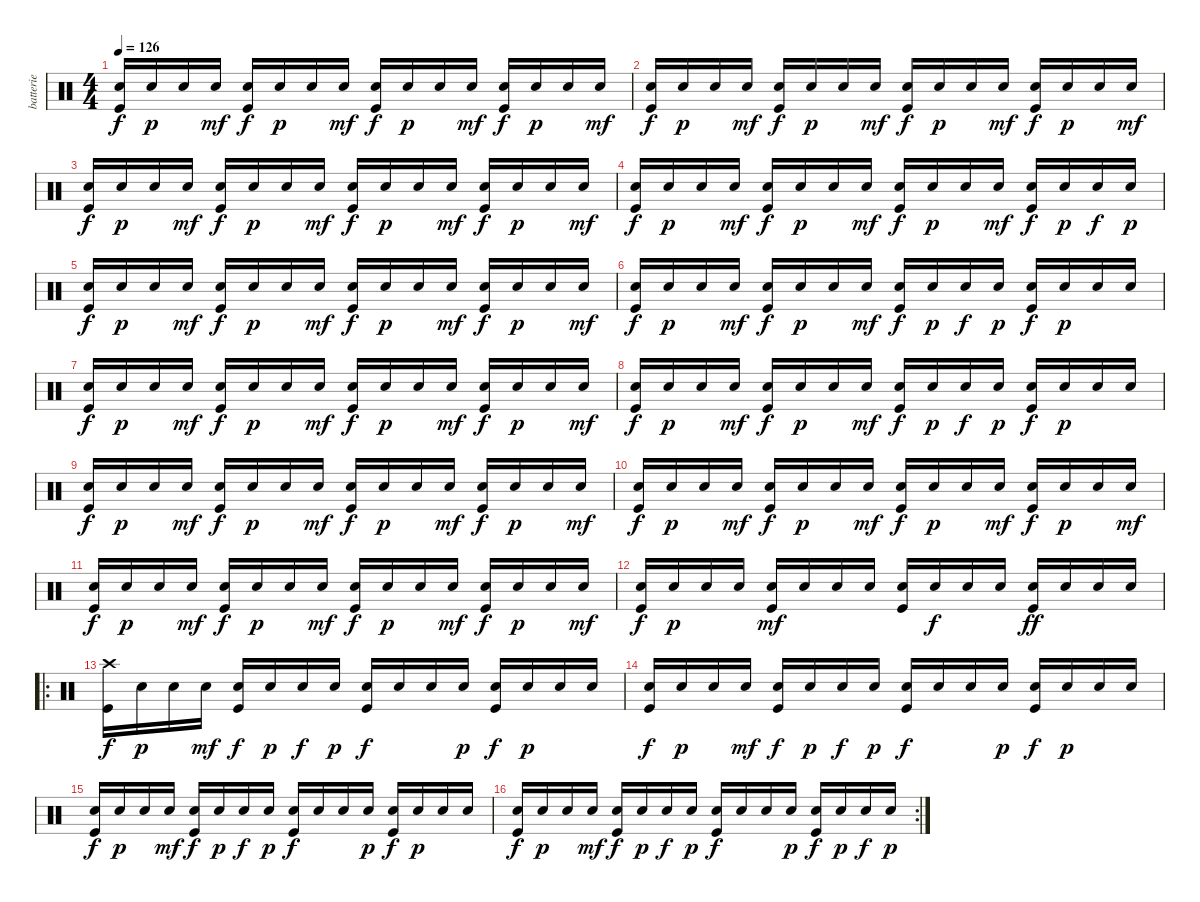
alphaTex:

\track ("batterie" "batterie") {instrument percussion}
\staff {score}
\articulation defaults
\ts (4 4)
\tempo 126
\clef neutral
\ks c
("Electric Snare (hit)" "Kick (hit)").16{dy f} "Electric Snare (hit)".16{dy p} "Electric Snare (hit)".16 "Electric Snare (hit)".16{dy mf} ("Electric Snare (hit)" "Kick (hit)").16{dy f} "Electric Snare (hit)".16{dy p} "Electric Snare (hit)".16 "Electric Snare (hit)".16{dy mf} ("Electric Snare (hit)" "Kick (hit)").16{dy f} "Electric Snare (hit)".16{dy p} "Electric Snare (hit)".16 "Electric Snare (hit)".16{dy mf} ("Electric Snare (hit)" "Kick (hit)").16{dy f} "Electric Snare (hit)".16{dy p} "Electric Snare (hit)".16 "Electric Snare (hit)".16{dy mf} |
("Electric Snare (hit)" "Kick (hit)").16{dy f} "Electric Snare (hit)".16{dy p} "Electric Snare (hit)".16 "Electric Snare (hit)".16{dy mf} ("Electric Snare (hit)" "Kick (hit)").16{dy f} "Electric Snare (hit)".16{dy p} "Electric Snare (hit)".16 "Electric Snare (hit)".16{dy mf} ("Electric Snare (hit)" "Kick (hit)").16{dy f} "Electric Snare (hit)".16{dy p} "Electric Snare (hit)".16 "Electric Snare (hit)".16{dy mf} ("Electric Snare (hit)" "Kick (hit)").16{dy f} "Electric Snare (hit)".16{dy p} "Electric Snare (hit)".16 "Electric Snare (hit)".16{dy mf} |
("Electric Snare (hit)" "Kick (hit)").16{dy f} "Electric Snare (hit)".16{dy p} "Electric Snare (hit)".16 "Electric Snare (hit)".16{dy mf} ("Electric Snare (hit)" "Kick (hit)").16{dy f} "Electric Snare (hit)".16{dy p} "Electric Snare (hit)".16 "Electric Snare (hit)".16{dy mf} ("Electric Snare (hit)" "Kick (hit)").16{dy f} "Electric Snare (hit)".16{dy p} "Electric Snare (hit)".16 "Electric Snare (hit)".16{dy mf} ("Electric Snare (hit)" "Kick (hit)").16{dy f} "Electric Snare (hit)".16{dy p} "Electric Snare (hit)".16 "Electric Snare (hit)".16{dy mf} |
("Electric Snare (hit)" "Kick (hit)").16{dy f} "Electric Snare (hit)".16{dy p} "Electric Snare (hit)".16 "Electric Snare (hit)".16{dy mf} ("Electric Snare (hit)" "Kick (hit)").16{dy f} "Electric Snare (hit)".16{dy p} "Electric Snare (hit)".16 "Electric Snare (hit)".16{dy mf} ("Electric Snare (hit)" "Kick (hit)").16{dy f} "Electric Snare (hit)".16{dy p} "Electric Snare (hit)".16 "Electric Snare (hit)".16{dy mf} ("Electric Snare (hit)" "Kick (hit)").16{dy f} "Electric Snare (hit)".16{dy p} "Electric Snare (hit)".16{dy f} "Electric Snare (hit)".16{dy p} |
("Electric Snare (hit)" "Kick (hit)").16{dy f} "Electric Snare (hit)".16{dy p} "Electric Snare (hit)".16 "Electric Snare (hit)".16{dy mf} ("Electric Snare (hit)" "Kick (hit)").16{dy f} "Electric Snare (hit)".16{dy p} "Electric Snare (hit)".16 "Electric Snare (hit)".16{dy mf} ("Electric Snare (hit)" "Kick (hit)").16{dy f} "Electric Snare (hit)".16{dy p} "Electric Snare (hit)".16 "Electric Snare (hit)".16{dy mf} ("Electric Snare (hit)" "Kick (hit)").16{dy f} "Electric Snare (hit)".16{dy p} "Electric Snare (hit)".16 "Electric Snare (hit)".16{dy mf} |
("Electric Snare (hit)" "Kick (hit)").16{dy f} "Electric Snare (hit)".16{dy p} "Electric Snare (hit)".16 "Electric Snare (hit)".16{dy mf} ("Electric Snare (hit)" "Kick (hit)").16{dy f} "Electric Snare (hit)".16{dy p} "Electric Snare (hit)".16 "Electric Snare (hit)".16{dy mf} ("Electric Snare (hit)" "Kick (hit)").16{dy f} "Electric Snare (hit)".16{dy p} "Electric Snare (hit)".16{dy f} "Electric Snare (hit)".16{dy p} ("Electric Snare (hit)" "Kick (hit)").16{dy f} "Electric Snare (hit)".16{dy p} "Electric Snare (hit)".16 "Electric Snare (hit)".16 |
("Electric Snare (hit)" "Kick (hit)").16{dy f} "Electric Snare (hit)".16{dy p} "Electric Snare (hit)".16 "Electric Snare (hit)".16{dy mf} ("Electric Snare (hit)" "Kick (hit)").16{dy f} "Electric Snare (hit)".16{dy p} "Electric Snare (hit)".16 "Electric Snare (hit)".16{dy mf} ("Electric Snare (hit)" "Kick (hit)").16{dy f} "Electric Snare (hit)".16{dy p} "Electric Snare (hit)".16 "Electric Snare (hit)".16{dy mf} ("Electric Snare (hit)" "Kick (hit)").16{dy f} "Electric Snare (hit)".16{dy p} "Electric Snare (hit)".16 "Electric Snare (hit)".16{dy mf} |
("Electric Snare (hit)" "Kick (hit)").16{dy f} "Electric Snare (hit)".16{dy p} "Electric Snare (hit)".16 "Electric Snare (hit)".16{dy mf} ("Electric Snare (hit)" "Kick (hit)").16{dy f} "Electric Snare (hit)".16{dy p} "Electric Snare (hit)".16 "Electric Snare (hit)".16{dy mf} ("Electric Snare (hit)" "Kick (hit)").16{dy f} "Electric Snare (hit)".16{dy p} "Electric Snare (hit)".16{dy f} "Electric Snare (hit)".16{dy p} ("Electric Snare (hit)" "Kick (hit)").16{dy f} "Electric Snare (hit)".16{dy p} "Electric Snare (hit)".16 "Electric Snare (hit)".16 |
("Electric Snare (hit)" "Kick (hit)").16{dy f} "Electric Snare (hit)".16{dy p} "Electric Snare (hit)".16 "Electric Snare (hit)".16{dy mf} ("Electric Snare (hit)" "Kick (hit)").16{dy f} "Electric Snare (hit)".16{dy p} "Electric Snare (hit)".16 "Electric Snare (hit)".16{dy mf} ("Electric Snare (hit)" "Kick (hit)").16{dy f} "Electric Snare (hit)".16{dy p} "Electric Snare (hit)".16 "Electric Snare (hit)".16{dy mf} ("Electric Snare (hit)" "Kick (hit)").16{dy f} "Electric Snare (hit)".16{dy p} "Electric Snare (hit)".16 "Electric Snare (hit)".16{dy mf} |
("Electric Snare (hit)" "Kick (hit)").16{dy f} "Electric Snare (hit)".16{dy p} "Electric Snare (hit)".16 "Electric Snare (hit)".16{dy mf} ("Electric Snare (hit)" "Kick (hit)").16{dy f} "Electric Snare (hit)".16{dy p} "Electric Snare (hit)".16 "Electric Snare (hit)".16{dy mf} ("Electric Snare (hit)" "Kick (hit)").16{dy f} "Electric Snare (hit)".16{dy p} "Electric Snare (hit)".16 "Electric Snare (hit)".16{dy mf} ("Electric Snare (hit)" "Kick (hit)").16{dy f} "Electric Snare (hit)".16{dy p} "Electric Snare (hit)".16 "Electric Snare (hit)".16{dy mf} |
("Electric Snare (hit)" "Kick (hit)").16{dy f} "Electric Snare (hit)".16{dy p} "Electric Snare (hit)".16 "Electric Snare (hit)".16{dy mf} ("Electric Snare (hit)" "Kick (hit)").16{dy f} "Electric Snare (hit)".16{dy p} "Electric Snare (hit)".16 "Electric Snare (hit)".16{dy mf} ("Electric Snare (hit)" "Kick (hit)").16{dy f} "Electric Snare (hit)".16{dy p} "Electric Snare (hit)".16 "Electric Snare (hit)".16{dy mf} ("Electric Snare (hit)" "Kick (hit)").16{dy f} "Electric Snare (hit)".16{dy p} "Electric Snare (hit)".16 "Electric Snare (hit)".16{dy mf} |
("Electric Snare (hit)" "Kick (hit)").16{dy f} "Electric Snare (hit)".16{dy p} "Electric Snare (hit)".16 "Electric Snare (hit)".16 ("Electric Snare (hit)" "Kick (hit)").16{dy mf} "Electric Snare (hit)".16 "Electric Snare (hit)".16 "Electric Snare (hit)".16 ("Electric Snare (hit)" "Kick (hit)").16 "Electric Snare (hit)".16{dy f} "Electric Snare (hit)".16 "Electric Snare (hit)".16 ("Electric Snare (hit)" "Kick (hit)").16{dy ff} "Electric Snare (hit)".16 "Electric Snare (hit)".16 "Electric Snare (hit)".16 |
\ro
("Crash high (hit)" "Kick (hit)").16{dy f} "Electric Snare (hit)".16{dy p} "Electric Snare (hit)".16 "Electric Snare (hit)".16{dy mf} ("Electric Snare (hit)" "Kick (hit)").16{dy f} "Electric Snare (hit)".16{dy p} "Electric Snare (hit)".16{dy f} "Electric Snare (hit)".16{dy p} ("Electric Snare (hit)" "Kick (hit)").16{dy f} "Electric Snare (hit)".16 "Electric Snare (hit)".16 "Electric Snare (hit)".16{dy p} ("Electric Snare (hit)" "Kick (hit)").16{dy f} "Electric Snare (hit)".16{dy p} "Electric Snare (hit)".16 "Electric Snare (hit)".16 |
("Electric Snare (hit)" "Kick (hit)").16{dy f} "Electric Snare (hit)".16{dy p} "Electric Snare (hit)".16 "Electric Snare (hit)".16{dy mf} ("Electric Snare (hit)" "Kick (hit)").16{dy f} "Electric Snare (hit)".16{dy p} "Electric Snare (hit)".16{dy f} "Electric Snare (hit)".16{dy p} ("Electric Snare (hit)" "Kick (hit)").16{dy f} "Electric Snare (hit)".16 "Electric Snare (hit)".16 "Electric Snare (hit)".16{dy p} ("Electric Snare (hit)" "Kick (hit)").16{dy f} "Electric Snare (hit)".16{dy p} "Electric Snare (hit)".16 "Electric Snare (hit)".16 |
("Electric Snare (hit)" "Kick (hit)").16{dy f} "Electric Snare (hit)".16{dy p} "Electric Snare (hit)".16 "Electric Snare (hit)".16{dy mf} ("Electric Snare (hit)" "Kick (hit)").16{dy f} "Electric Snare (hit)".16{dy p} "Electric Snare (hit)".16{dy f} "Electric Snare (hit)".16{dy p} ("Electric Snare (hit)" "Kick (hit)").16{dy f} "Electric Snare (hit)".16 "Electric Snare (hit)".16 "Electric Snare (hit)".16{dy p} ("Electric Snare (hit)" "Kick (hit)").16{dy f} "Electric Snare (hit)".16{dy p} "Electric Snare (hit)".16 "Electric Snare (hit)".16 |
\rc 2
("Electric Snare (hit)" "Kick (hit)").16{dy f} "Electric Snare (hit)".16{dy p} "Electric Snare (hit)".16 "Electric Snare (hit)".16{dy mf} ("Electric Snare (hit)" "Kick (hit)").16{dy f} "Electric Snare (hit)".16{dy p} "Electric Snare (hit)".16{dy f} "Electric Snare (hit)".16{dy p} ("Electric Snare (hit)" "Kick (hit)").16{dy f} "Electric Snare (hit)".16 "Electric Snare (hit)".16 "Electric Snare (hit)".16{dy p} ("Electric Snare (hit)" "Kick (hit)").16{dy f} "Electric Snare (hit)".16{dy p} "Electric Snare (hit)".16{dy f} "Electric Snare (hit)".16{dy p}
